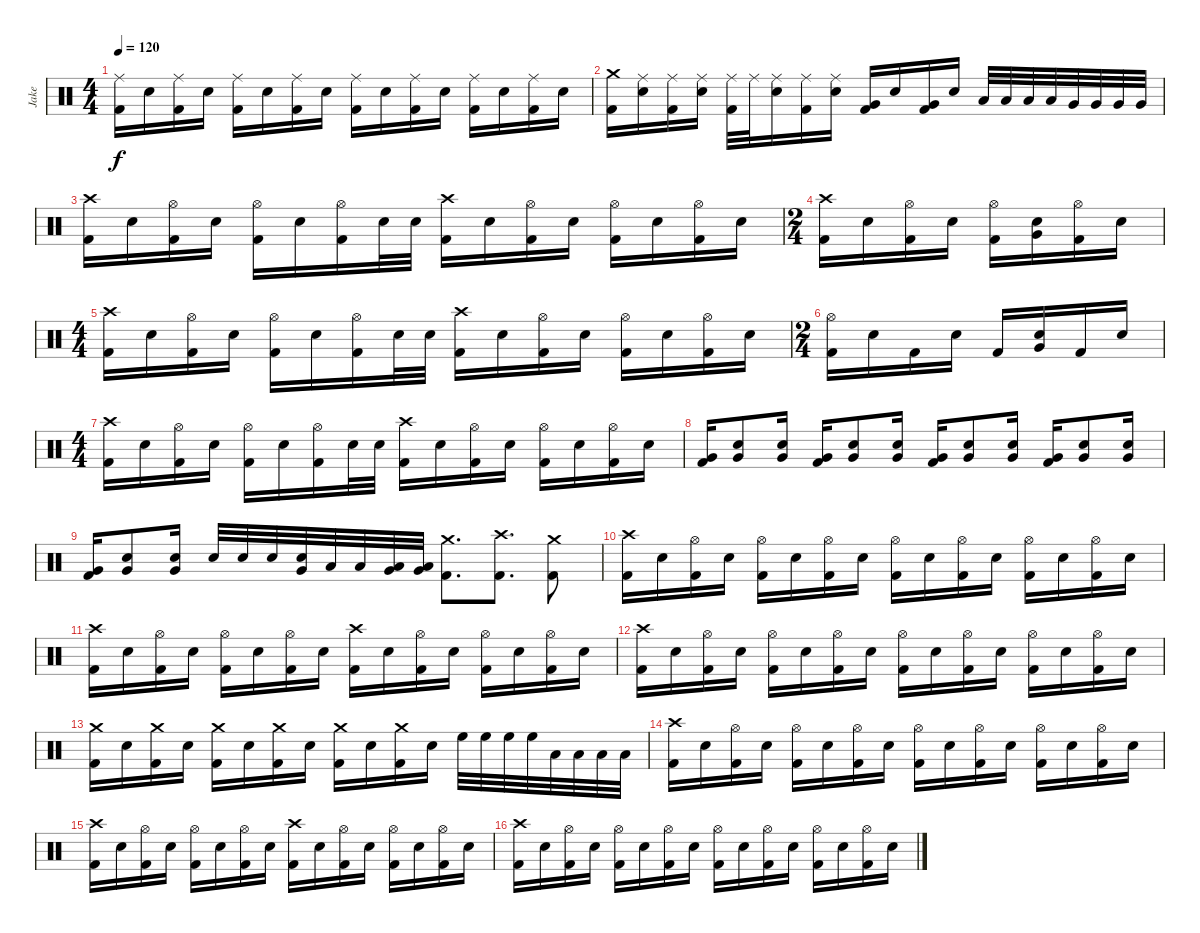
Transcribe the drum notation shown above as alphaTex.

\track ("Jake" "Jake") {instrument percussion}
\staff {score}
\articulation defaults
\ts (4 4)
\tempo 120
\clef neutral
\ks c
("Ride (middle)" "Kick (hit) 2").16{dy f} "Snare (hit) 2".16 ("Ride (middle)" "Kick (hit) 2").16 "Snare (hit) 2".16 ("Ride (middle)" "Kick (hit) 2").16 "Snare (hit) 2".16 ("Ride (middle)" "Kick (hit) 2").16 "Snare (hit) 2".16 ("Ride (middle)" "Kick (hit) 2").16 "Snare (hit) 2".16 ("Ride (middle)" "Kick (hit) 2").16 "Snare (hit) 2".16 ("Ride (middle)" "Kick (hit) 2").16 "Snare (hit) 2".16 ("Ride (middle)" "Kick (hit) 2").16 "Snare (hit) 2".16 |
("Crash medium (hit)" "Kick (hit) 2").16 ("Ride (middle)" "Snare (hit) 2").16 ("Ride (middle)" "Kick (hit) 2").16 ("Ride (middle)" "Snare (hit) 2").16 ("Ride (middle)" "Kick (hit) 2").32 "Ride (middle)".32 ("Ride (middle)" "Snare (hit) 2").16 ("Ride (middle)" "Kick (hit) 2").16 ("Ride (middle)" "Snare (hit) 2").16 ("Very Low Tom (hit)" "Kick (hit) 2").16 "Snare (hit) 2".16 ("Very Low Tom (hit)" "Kick (hit) 2").16 "Snare (hit) 2".16 "Low Tom (hit)".32 "Low Tom (hit)".32 "Low Tom (hit)".32 "Low Tom (hit)".32 "Very Low Tom (hit)".32 "Very Low Tom (hit)".32 "Very Low Tom (hit)".32 "Very Low Tom (hit)".32 |
("Crash high (hit)" "Kick (hit) 2").16 "Snare (hit) 2".16 ("Hi-Hat (open)" "Kick (hit) 2").16 "Snare (hit) 2".16 ("Hi-Hat (open)" "Kick (hit) 2").16 "Snare (hit) 2".16 ("Hi-Hat (open)" "Kick (hit) 2").16 "Snare (hit) 2".32 "Snare (hit) 2".32 ("Crash high (hit)" "Kick (hit) 2").16 "Snare (hit) 2".16 ("Hi-Hat (open)" "Kick (hit) 2").16 "Snare (hit) 2".16 ("Hi-Hat (open)" "Kick (hit) 2").16 "Snare (hit) 2".16 ("Hi-Hat (open)" "Kick (hit) 2").16 "Snare (hit) 2".16 |
\ts (2 4)
("Crash high (hit)" "Kick (hit) 2").16 "Snare (hit) 2".16 ("Hi-Hat (open)" "Kick (hit) 2").16 "Snare (hit) 2".16 ("Hi-Hat (open)" "Kick (hit) 2").16 ("Very Low Tom (hit)" "Snare (hit) 2").16 ("Hi-Hat (open)" "Kick (hit) 2").16 "Snare (hit) 2".16 |
\ts (4 4)
("Crash high (hit)" "Kick (hit) 2").16 "Snare (hit) 2".16 ("Hi-Hat (open)" "Kick (hit) 2").16 "Snare (hit) 2".16 ("Hi-Hat (open)" "Kick (hit) 2").16 "Snare (hit) 2".16 ("Hi-Hat (open)" "Kick (hit) 2").16 "Snare (hit) 2".32 "Snare (hit) 2".32 ("Crash high (hit)" "Kick (hit) 2").16 "Snare (hit) 2".16 ("Hi-Hat (open)" "Kick (hit) 2").16 "Snare (hit) 2".16 ("Hi-Hat (open)" "Kick (hit) 2").16 "Snare (hit) 2".16 ("Hi-Hat (open)" "Kick (hit) 2").16 "Snare (hit) 2".16 |
\ts (2 4)
("Hi-Hat (open)" "Kick (hit) 2").16 "Snare (hit) 2".16 "Kick (hit) 2".16 "Snare (hit) 2".16 "Kick (hit) 2".16 ("Very Low Tom (hit)" "Snare (hit) 2").16 "Kick (hit) 2".16 "Snare (hit) 2".16 |
\ts (4 4)
("Crash high (hit)" "Kick (hit) 2").16 "Snare (hit) 2".16 ("Hi-Hat (open)" "Kick (hit) 2").16 "Snare (hit) 2".16 ("Hi-Hat (open)" "Kick (hit) 2").16 "Snare (hit) 2".16 ("Hi-Hat (open)" "Kick (hit) 2").16 "Snare (hit) 2".32 "Snare (hit) 2".32 ("Crash high (hit)" "Kick (hit) 2").16 "Snare (hit) 2".16 ("Hi-Hat (open)" "Kick (hit) 2").16 "Snare (hit) 2".16 ("Hi-Hat (open)" "Kick (hit) 2").16 "Snare (hit) 2".16 ("Hi-Hat (open)" "Kick (hit) 2").16 "Snare (hit) 2".16 |
("Very Low Tom (hit)" "Kick (hit) 2").16 ("Very Low Tom (hit)" "Snare (hit) 2").8 ("Very Low Tom (hit)" "Snare (hit) 2").16 ("Very Low Tom (hit)" "Kick (hit) 2").16 ("Very Low Tom (hit)" "Snare (hit) 2").8 ("Very Low Tom (hit)" "Snare (hit) 2").16 ("Very Low Tom (hit)" "Kick (hit) 2").16 ("Very Low Tom (hit)" "Snare (hit) 2").8 ("Very Low Tom (hit)" "Snare (hit) 2").16 ("Very Low Tom (hit)" "Kick (hit) 2").16 ("Very Low Tom (hit)" "Snare (hit) 2").8 ("Very Low Tom (hit)" "Snare (hit) 2").16 |
("Very Low Tom (hit)" "Kick (hit) 2").16 ("Very Low Tom (hit)" "Snare (hit) 2").8 ("Very Low Tom (hit)" "Snare (hit) 2").16 "Snare (hit) 2".32 "Snare (hit) 2".32 "Snare (hit) 2".32 ("Very Low Tom (hit)" "Snare (hit) 2").32 "Low Tom (hit)".32 "Low Tom (hit)".32 ("Very Low Tom (hit)" "Low Tom (hit)").32 ("Very Low Tom (hit)" "Low Tom (hit)").32 ("Crash medium (hit)" "Kick (hit) 2").8{d} ("Crash high (hit)" "Kick (hit) 2").8{d} ("Crash medium (hit)" "Kick (hit) 2").8 |
("Crash high (hit)" "Kick (hit) 2").16 "Snare (hit) 2".16 ("Hi-Hat (open)" "Kick (hit) 2").16 "Snare (hit) 2".16 ("Hi-Hat (open)" "Kick (hit) 2").16 "Snare (hit) 2".16 ("Hi-Hat (open)" "Kick (hit) 2").16 "Snare (hit) 2".16 ("Hi-Hat (open)" "Kick (hit) 2").16 "Snare (hit) 2".16 ("Hi-Hat (open)" "Kick (hit) 2").16 "Snare (hit) 2".16 ("Hi-Hat (open)" "Kick (hit) 2").16 "Snare (hit) 2".16 ("Hi-Hat (open)" "Kick (hit) 2").16 "Snare (hit) 2".16 |
("Crash high (hit)" "Kick (hit) 2").16 "Snare (hit) 2".16 ("Hi-Hat (open)" "Kick (hit) 2").16 "Snare (hit) 2".16 ("Hi-Hat (open)" "Kick (hit) 2").16 "Snare (hit) 2".16 ("Hi-Hat (open)" "Kick (hit) 2").16 "Snare (hit) 2".16 ("Crash high (hit)" "Kick (hit) 2").16 "Snare (hit) 2".16 ("Hi-Hat (open)" "Kick (hit) 2").16 "Snare (hit) 2".16 ("Hi-Hat (open)" "Kick (hit) 2").16 "Snare (hit) 2".16 ("Hi-Hat (open)" "Kick (hit) 2").16 "Snare (hit) 2".16 |
("Crash high (hit)" "Kick (hit) 2").16 "Snare (hit) 2".16 ("Hi-Hat (open)" "Kick (hit) 2").16 "Snare (hit) 2".16 ("Hi-Hat (open)" "Kick (hit) 2").16 "Snare (hit) 2".16 ("Hi-Hat (open)" "Kick (hit) 2").16 "Snare (hit) 2".16 ("Hi-Hat (open)" "Kick (hit) 2").16 "Snare (hit) 2".16 ("Hi-Hat (open)" "Kick (hit) 2").16 "Snare (hit) 2".16 ("Hi-Hat (open)" "Kick (hit) 2").16 "Snare (hit) 2".16 ("Hi-Hat (open)" "Kick (hit) 2").16 "Snare (hit) 2".16 |
("Crash medium (hit)" "Kick (hit) 2").16 "Snare (hit) 2".16 ("Crash medium (hit)" "Kick (hit) 2").16 "Snare (hit) 2".16 ("Crash medium (hit)" "Kick (hit) 2").16 "Snare (hit) 2".16 ("Crash medium (hit)" "Kick (hit) 2").16 "Snare (hit) 2".16 ("Crash medium (hit)" "Kick (hit) 2").16 "Snare (hit) 2".16 ("Crash medium (hit)" "Kick (hit) 2").16 "Snare (hit) 2".16 "High Floor Tom (hit)".32 "High Floor Tom (hit)".32 "High Floor Tom (hit)".32 "High Floor Tom (hit)".32 "Low Tom (hit)".32 "Low Tom (hit)".32 "Low Tom (hit)".32 "Low Tom (hit)".32 |
("Crash high (hit)" "Kick (hit) 2").16 "Snare (hit) 2".16 ("Hi-Hat (open)" "Kick (hit) 2").16 "Snare (hit) 2".16 ("Hi-Hat (open)" "Kick (hit) 2").16 "Snare (hit) 2".16 ("Hi-Hat (open)" "Kick (hit) 2").16 "Snare (hit) 2".16 ("Hi-Hat (open)" "Kick (hit) 2").16 "Snare (hit) 2".16 ("Hi-Hat (open)" "Kick (hit) 2").16 "Snare (hit) 2".16 ("Hi-Hat (open)" "Kick (hit) 2").16 "Snare (hit) 2".16 ("Hi-Hat (open)" "Kick (hit) 2").16 "Snare (hit) 2".16 |
("Crash high (hit)" "Kick (hit) 2").16 "Snare (hit) 2".16 ("Hi-Hat (open)" "Kick (hit) 2").16 "Snare (hit) 2".16 ("Hi-Hat (open)" "Kick (hit) 2").16 "Snare (hit) 2".16 ("Hi-Hat (open)" "Kick (hit) 2").16 "Snare (hit) 2".16 ("Crash high (hit)" "Kick (hit) 2").16 "Snare (hit) 2".16 ("Hi-Hat (open)" "Kick (hit) 2").16 "Snare (hit) 2".16 ("Hi-Hat (open)" "Kick (hit) 2").16 "Snare (hit) 2".16 ("Hi-Hat (open)" "Kick (hit) 2").16 "Snare (hit) 2".16 |
("Crash high (hit)" "Kick (hit) 2").16 "Snare (hit) 2".16 ("Hi-Hat (open)" "Kick (hit) 2").16 "Snare (hit) 2".16 ("Hi-Hat (open)" "Kick (hit) 2").16 "Snare (hit) 2".16 ("Hi-Hat (open)" "Kick (hit) 2").16 "Snare (hit) 2".16 ("Hi-Hat (open)" "Kick (hit) 2").16 "Snare (hit) 2".16 ("Hi-Hat (open)" "Kick (hit) 2").16 "Snare (hit) 2".16 ("Hi-Hat (open)" "Kick (hit) 2").16 "Snare (hit) 2".16 ("Hi-Hat (open)" "Kick (hit) 2").16 "Snare (hit) 2".16
